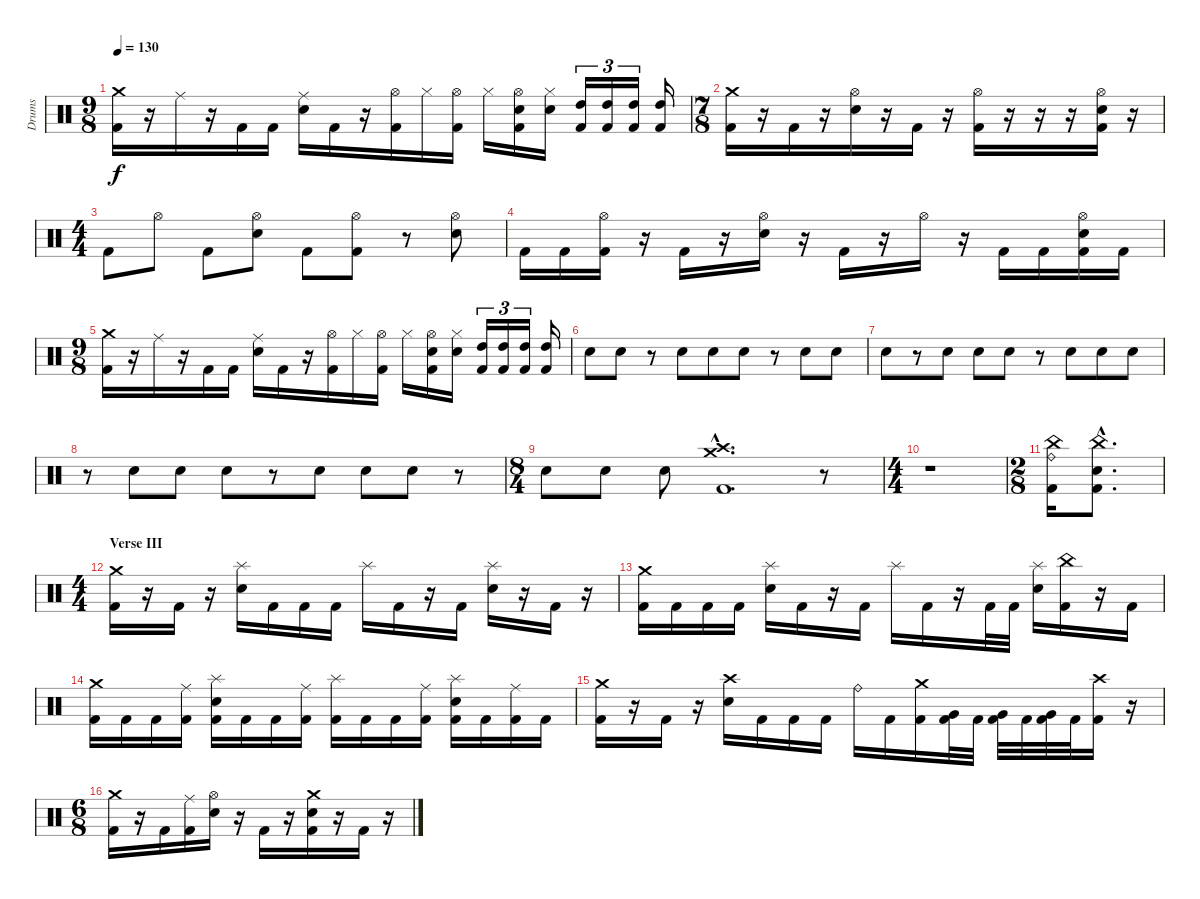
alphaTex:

\track ("Drums" "Drums") {instrument percussion}
\staff {score}
\articulation defaults
\ts (9 8)
\tempo 130
\clef neutral
\ks c
("Crash medium (hit)" "Kick (hit) 2").16{dy f} r.16 "Ride (middle)".16 r.16 "Kick (hit) 2".16 "Kick (hit) 2".16 ("Ride (middle)" "Electric Snare (hit)").16 "Kick (hit) 2".16 r.16 ("Hi-Hat (open)" "Kick (hit) 2").16 "Hi-Hat (closed)".16 ("Hi-Hat (open)" "Kick (hit) 2").16 "Hi-Hat (closed)".16 ("Hi-Hat (open)" "Electric Snare (hit)" "Kick (hit) 2").16 ("Hi-Hat (closed)" "Electric Snare (hit)").16 ("High Tom (hit)" "Kick (hit) 2").16{tu (3 2)} ("High Tom (hit)" "Kick (hit) 2").16{tu (3 2)} ("High Tom (hit)" "Kick (hit) 2").16{tu (3 2)} ("High Tom (hit)" "Kick (hit) 2").16 |
\ts (7 8)
("Crash medium (hit)" "Kick (hit) 2").16 r.16 "Kick (hit) 2".16 r.16 ("Hi-Hat (open)" "Electric Snare (hit)").16 r.16 "Kick (hit) 2".16 r.16 ("Hi-Hat (open)" "Kick (hit) 2").16 r.16 r.16 r.16 ("Hi-Hat (open)" "Electric Snare (hit)" "Kick (hit) 2").16 r.16 |
\ts (4 4)
"Kick (hit) 2".8 "Hi-Hat (open)".8 "Kick (hit) 2".8 ("Hi-Hat (open)" "Electric Snare (hit)").8 "Kick (hit) 2".8 ("Hi-Hat (open)" "Kick (hit) 2").8 r.8 ("Hi-Hat (open)" "Electric Snare (hit)").8 |
"Kick (hit) 2".16 "Kick (hit) 2".16 ("Hi-Hat (open)" "Kick (hit) 2").16 r.16 "Kick (hit) 2".16 r.16 ("Hi-Hat (open)" "Electric Snare (hit)").16 r.16 "Kick (hit) 2".16 r.16 "Hi-Hat (open)".16 r.16 "Kick (hit) 2".16 "Kick (hit) 2".16 ("Hi-Hat (open)" "Electric Snare (hit)" "Kick (hit) 2").16 "Kick (hit) 2".16 |
\ts (9 8)
("Crash medium (hit)" "Kick (hit) 2").16 r.16 "Ride (middle)".16 r.16 "Kick (hit) 2".16 "Kick (hit) 2".16 ("Ride (middle)" "Electric Snare (hit)").16 "Kick (hit) 2".16 r.16 ("Hi-Hat (open)" "Kick (hit) 2").16 "Hi-Hat (closed)".16 ("Hi-Hat (open)" "Kick (hit) 2").16 "Hi-Hat (closed)".16 ("Hi-Hat (open)" "Electric Snare (hit)" "Kick (hit) 2").16 ("Hi-Hat (closed)" "Electric Snare (hit)").16 ("High Tom (hit)" "Kick (hit) 2").16{tu (3 2)} ("High Tom (hit)" "Kick (hit) 2").16{tu (3 2)} ("High Tom (hit)" "Kick (hit) 2").16{tu (3 2)} ("High Tom (hit)" "Kick (hit) 2").16 |
"Electric Snare (hit)".8 "Electric Snare (hit)".8 r.8 "Electric Snare (hit)".8 "Electric Snare (hit)".8 "Electric Snare (hit)".8 r.8 "Electric Snare (hit)".8 "Electric Snare (hit)".8 |
"Electric Snare (hit)".8 r.8 "Electric Snare (hit)".8 "Electric Snare (hit)".8 "Electric Snare (hit)".8 r.8 "Electric Snare (hit)".8 "Electric Snare (hit)".8 "Electric Snare (hit)".8 |
r.8 "Electric Snare (hit)".8 "Electric Snare (hit)".8 "Electric Snare (hit)".8 r.8 "Electric Snare (hit)".8 "Electric Snare (hit)".8 "Electric Snare (hit)".8 r.8 |
\ts (8 4)
"Electric Snare (hit)".8 "Electric Snare (hit)".8 "Electric Snare (hit)".8 ("Crash medium (hit)"{hac} "Crash high (hit)"{hac} "Kick (hit) 2"{hac}).1{d} r.8 |
\ts (4 4)
r.1 |
\ts (2 8)
("China (hit)" "Ride (bell)" "Kick (hit) 2").16 ("China (hit)"{hac} "Electric Snare (hit)"{hac} "Kick (hit) 2"{hac}).8{d} |
\ts (4 4)
\section ("" "Verse III")
("Crash medium (hit)" "Kick (hit) 2").16 r.16 "Kick (hit) 2".16 r.16 ("Splash (hit)" "Electric Snare (hit)").16 "Kick (hit) 2".16 "Kick (hit) 2".16 "Kick (hit) 2".16 "Splash (hit)".16 "Kick (hit) 2".16 r.16 "Kick (hit) 2".16 ("Splash (hit)" "Electric Snare (hit)").16 r.16 "Kick (hit) 2".16 r.16 |
("Crash medium (hit)" "Kick (hit) 2").16 "Kick (hit) 2".16 "Kick (hit) 2".16 "Kick (hit) 2".16 ("Splash (hit)" "Electric Snare (hit)").16 "Kick (hit) 2".16 r.16 "Kick (hit) 2".16 "Splash (hit)".16 "Kick (hit) 2".16 r.16 "Kick (hit) 2".32 "Kick (hit) 2".32 ("Splash (hit)" "Electric Snare (hit)").16 ("China (hit)" "Kick (hit) 2").16 r.16 "Kick (hit) 2".16 |
("Crash medium (hit)" "Kick (hit) 2").16 "Kick (hit) 2".16 "Kick (hit) 2".16 ("Ride (middle)" "Kick (hit) 2").16 ("Splash (hit)" "Electric Snare (hit)" "Kick (hit) 2").16 "Kick (hit) 2".16 "Kick (hit) 2".16 ("Ride (middle)" "Kick (hit) 2").16 ("Splash (hit)" "Kick (hit) 2").16 "Kick (hit) 2".16 "Kick (hit) 2".16 ("Ride (middle)" "Kick (hit) 2").16 ("Splash (hit)" "Electric Snare (hit)" "Kick (hit) 2").16 "Kick (hit) 2".16 ("Ride (middle)" "Kick (hit) 2").16 "Kick (hit) 2".16 |
("Crash medium (hit)" "Kick (hit) 2").16 r.16 "Kick (hit) 2".16 r.16 ("Crash high (hit)" "Electric Snare (hit)").16 "Kick (hit) 2".16 "Kick (hit) 2".16 "Kick (hit) 2".16 "Ride (bell)".16 "Kick (hit) 2".16 ("Crash medium (hit)" "Kick (hit) 2").16 ("Very Low Tom (hit)" "Kick (hit) 2").32 "Kick (hit) 2".32 ("Very Low Tom (hit)" "Kick (hit) 2").32 "Kick (hit) 2".32 ("Very Low Tom (hit)" "Kick (hit) 2").32 "Kick (hit) 2".32 ("Crash high (hit)" "Kick (hit) 2").16 r.16 |
\ts (6 8)
("Crash medium (hit)" "Kick (hit) 2").16 r.16 "Kick (hit) 2".16 ("Ride (middle)" "Kick (hit) 2").16 ("Hi-Hat (open)" "Electric Snare (hit)").16 r.16 "Kick (hit) 2".16 r.16 ("Crash medium (hit)" "Electric Snare (hit)" "Kick (hit) 2").16 r.16 "Kick (hit) 2".16 r.16
